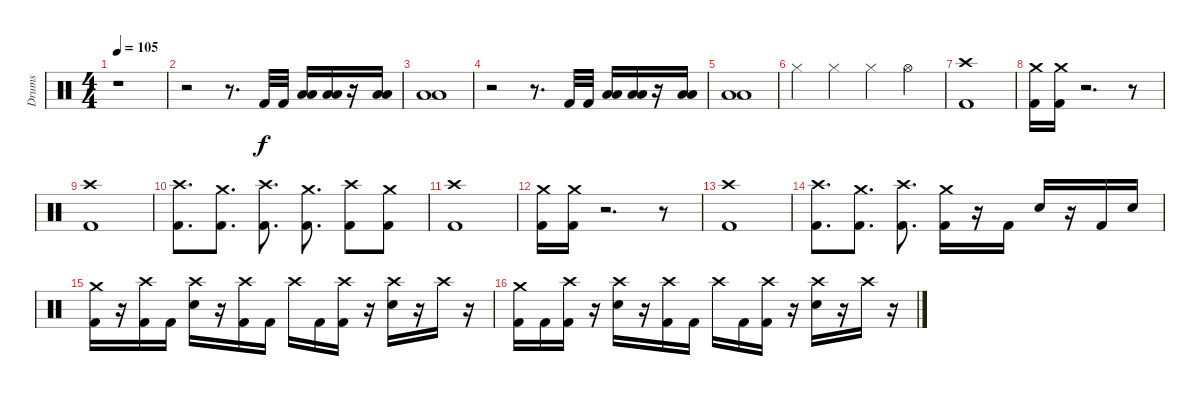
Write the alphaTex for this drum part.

\track ("Drums" "Drums") {instrument percussion}
\staff {score}
\articulation defaults
\ts (4 4)
\tempo 105
\clef neutral
\ks c
r.1{dy f} |
r.2 r.8{d} "Kick (hit) 2".32 "Kick (hit) 2".32 ("Low Tom (hit)" "Low Floor Tom (hit)").16 ("Low Tom (hit)" "Low Floor Tom (hit)").16 r.16 ("Low Tom (hit)" "Low Floor Tom (hit)").16 |
("Low Tom (hit)" "Low Floor Tom (hit)").1 |
r.2 r.8{d} "Kick (hit) 2".32 "Kick (hit) 2".32 ("Low Tom (hit)" "Low Floor Tom (hit)").16 ("Low Tom (hit)" "Low Floor Tom (hit)").16 r.16 ("Low Tom (hit)" "Low Floor Tom (hit)").16 |
("Low Tom (hit)" "Low Floor Tom (hit)").1 |
"Hi-Hat (closed)".4 "Hi-Hat (closed)".4 "Hi-Hat (closed)".4 "Hi-Hat (open)".4 |
("Crash high (hit)" "Kick (hit) 2").1 |
("Crash medium (hit)" "Kick (hit) 2").16 ("Crash medium (hit)" "Kick (hit) 2").16 r.2{d} r.8 |
("Crash high (hit)" "Kick (hit) 2").1 |
("Crash high (hit)" "Kick (hit) 2").8{d} ("Crash medium (hit)" "Kick (hit) 2").8{d} ("Crash high (hit)" "Kick (hit) 2").8{d} ("Crash medium (hit)" "Kick (hit) 2").8{d} ("Crash high (hit)" "Kick (hit) 2").8 ("Crash medium (hit)" "Kick (hit) 2").8 |
("Crash high (hit)" "Kick (hit) 2").1 |
("Crash medium (hit)" "Kick (hit) 2").16 ("Crash medium (hit)" "Kick (hit) 2").16 r.2{d} r.8 |
("Crash high (hit)" "Kick (hit) 2").1 |
("Crash high (hit)" "Kick (hit) 2").8{d} ("Crash medium (hit)" "Kick (hit) 2").8{d} ("Crash high (hit)" "Kick (hit) 2").8{d} ("Crash medium (hit)" "Kick (hit) 2").16 r.16 "Kick (hit) 2".16 "Electric Snare (hit)".16 r.16 "Kick (hit) 2".16 "Electric Snare (hit)".16 |
("Crash medium (hit)" "Kick (hit) 2").16 r.16 ("Crash high (hit)" "Kick (hit) 2").16 "Kick (hit) 2".16 ("Crash high (hit)" "Electric Snare (hit)").16 r.16 ("Crash high (hit)" "Kick (hit) 2").16 "Kick (hit) 2".16 "Crash high (hit)".16 "Kick (hit) 2".16 ("Crash high (hit)" "Kick (hit) 2").16 r.16 ("Crash high (hit)" "Electric Snare (hit)").16 r.16 "Crash high (hit)".16 r.16 |
("Crash medium (hit)" "Kick (hit) 2").16 "Kick (hit) 2".16 ("Crash high (hit)" "Kick (hit) 2").16 r.16 ("Crash high (hit)" "Electric Snare (hit)").16 r.16 ("Crash high (hit)" "Kick (hit) 2").16 "Kick (hit) 2".16 "Crash high (hit)".16 "Kick (hit) 2".16 ("Crash high (hit)" "Kick (hit) 2").16 r.16 ("Crash high (hit)" "Electric Snare (hit)").16 r.16 "Crash high (hit)".16 r.16
